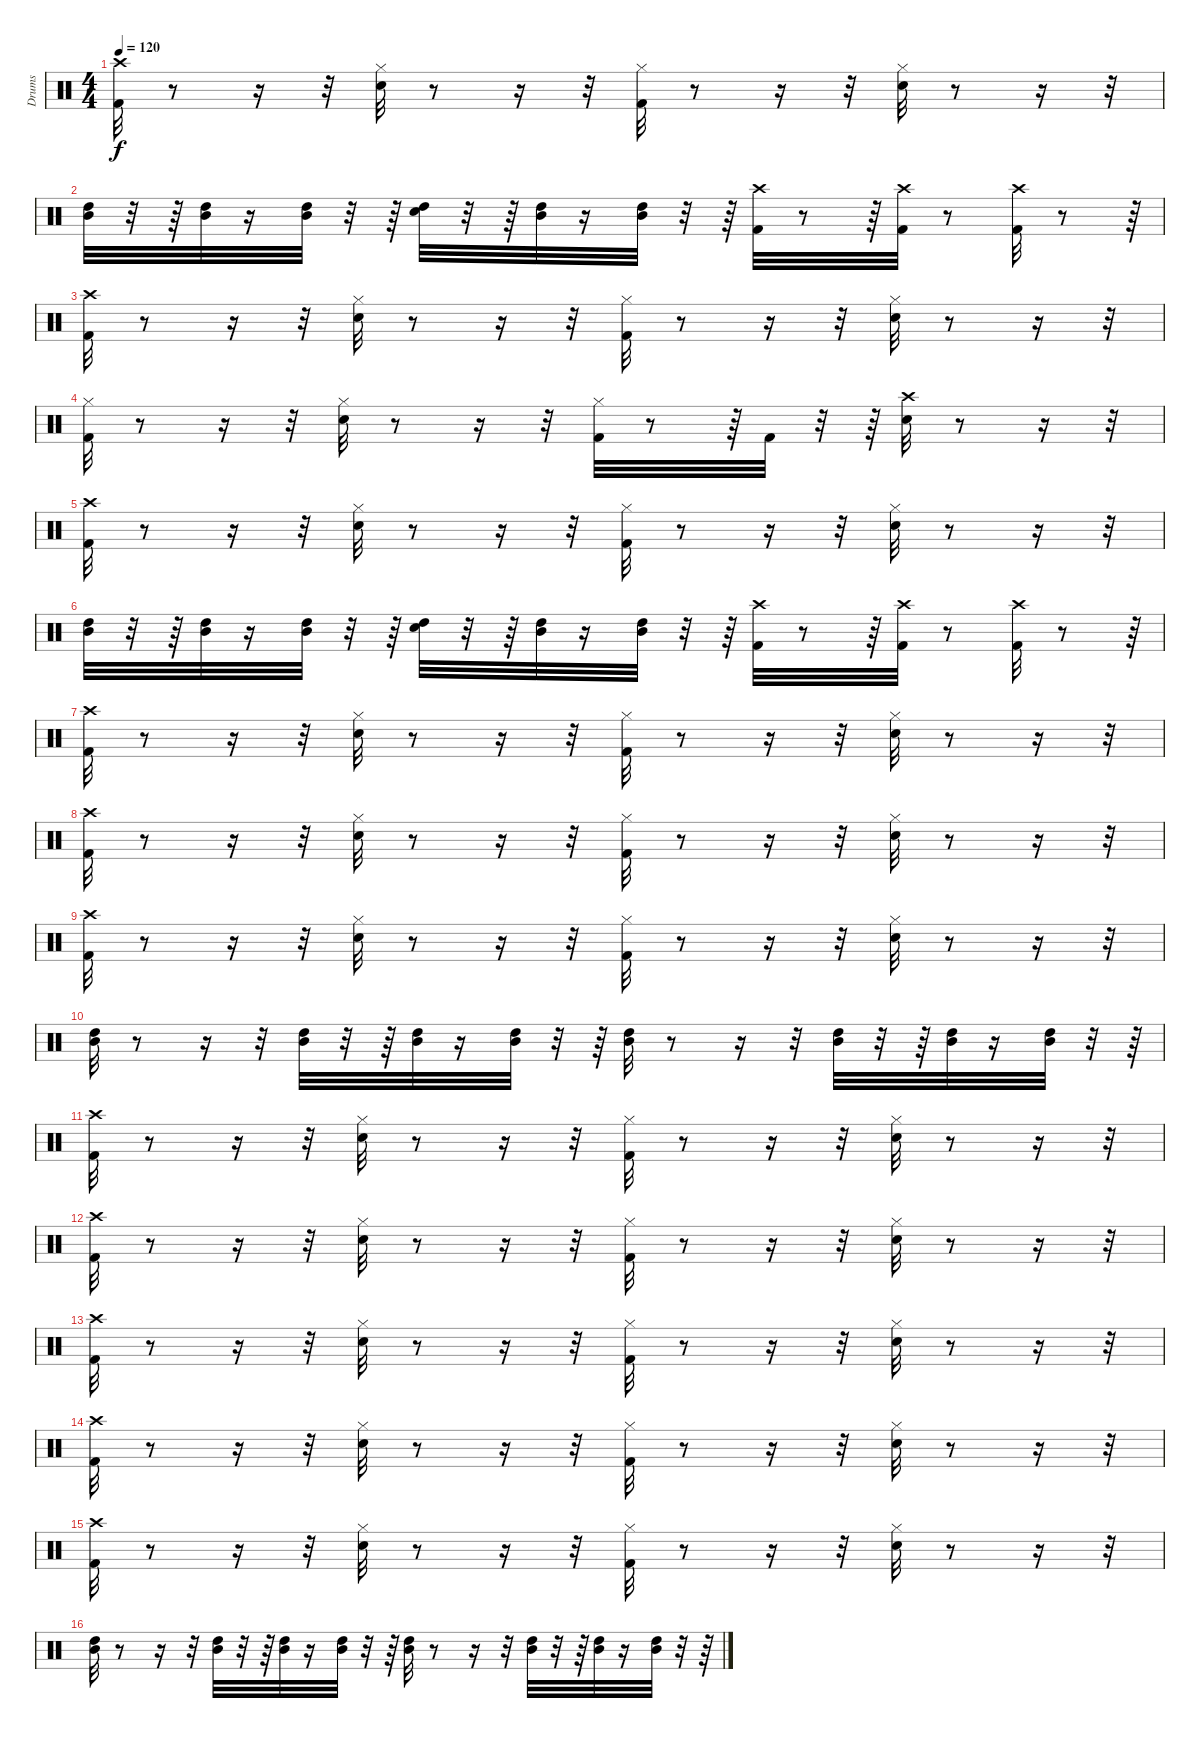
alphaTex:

\track ("Drums" "Drums") {instrument percussion}
\staff {score}
\articulation defaults
\ts (4 4)
\tempo 120
\clef neutral
\ks c
("Crash high (hit)" "Kick (hit) 2").32{dy f} r.8 r.16 r.32 ("Snare (hit) 2" "Hi-Hat (closed)").32 r.8 r.16 r.32 ("Hi-Hat (closed)" "Kick (hit) 2").32 r.8 r.16 r.32 ("Snare (hit) 2" "Hi-Hat (closed)").32 r.8 r.16 r.32 |
("High Tom (hit)" "Mid Tom (hit)").32 r.32 r.64 ("High Tom (hit)" "Mid Tom (hit)").32 r.16 ("High Tom (hit)" "Mid Tom (hit)").32 r.32 r.64 ("Snare (hit) 2" "High Tom (hit)").32 r.32 r.64 ("High Tom (hit)" "Mid Tom (hit)").32 r.16 ("High Tom (hit)" "Mid Tom (hit)").32 r.32 r.64 ("Kick (hit) 2" "Crash high (hit)").32 r.8 r.64 ("Kick (hit) 2" "Crash high (hit)").32 r.8 ("Kick (hit) 2" "Crash high (hit)").32 r.8 r.64 |
("Kick (hit) 2" "Crash high (hit)").32 r.8 r.16 r.32 ("Snare (hit) 2" "Hi-Hat (closed)").32 r.8 r.16 r.32 ("Kick (hit) 2" "Hi-Hat (closed)").32 r.8 r.16 r.32 ("Snare (hit) 2" "Hi-Hat (closed)").32 r.8 r.16 r.32 |
("Kick (hit) 2" "Hi-Hat (closed)").32 r.8 r.16 r.32 ("Snare (hit) 2" "Hi-Hat (closed)").32 r.8 r.16 r.32 ("Kick (hit) 2" "Hi-Hat (closed)").32 r.8 r.64 "Kick (hit) 2".32 r.32 r.64 ("Snare (hit) 2" "Crash high (hit)").32 r.8 r.16 r.32 |
("Crash high (hit)" "Kick (hit) 2").32 r.8 r.16 r.32 ("Snare (hit) 2" "Hi-Hat (closed)").32 r.8 r.16 r.32 ("Hi-Hat (closed)" "Kick (hit) 2").32 r.8 r.16 r.32 ("Snare (hit) 2" "Hi-Hat (closed)").32 r.8 r.16 r.32 |
("High Tom (hit)" "Mid Tom (hit)").32 r.32 r.64 ("High Tom (hit)" "Mid Tom (hit)").32 r.16 ("High Tom (hit)" "Mid Tom (hit)").32 r.32 r.64 ("Snare (hit) 2" "High Tom (hit)").32 r.32 r.64 ("High Tom (hit)" "Mid Tom (hit)").32 r.16 ("High Tom (hit)" "Mid Tom (hit)").32 r.32 r.64 ("Kick (hit) 2" "Crash high (hit)").32 r.8 r.64 ("Kick (hit) 2" "Crash high (hit)").32 r.8 ("Kick (hit) 2" "Crash high (hit)").32 r.8 r.64 |
("Kick (hit) 2" "Crash high (hit)").32 r.8 r.16 r.32 ("Snare (hit) 2" "Hi-Hat (closed)").32 r.8 r.16 r.32 ("Kick (hit) 2" "Hi-Hat (closed)").32 r.8 r.16 r.32 ("Snare (hit) 2" "Hi-Hat (closed)").32 r.8 r.16 r.32 |
("Kick (hit) 2" "Crash high (hit)").32 r.8 r.16 r.32 ("Snare (hit) 2" "Hi-Hat (closed)").32 r.8 r.16 r.32 ("Kick (hit) 2" "Hi-Hat (closed)").32 r.8 r.16 r.32 ("Snare (hit) 2" "Hi-Hat (closed)").32 r.8 r.16 r.32 |
("Kick (hit) 2" "Crash high (hit)").32 r.8 r.16 r.32 ("Snare (hit) 2" "Hi-Hat (closed)").32 r.8 r.16 r.32 ("Kick (hit) 2" "Hi-Hat (closed)").32 r.8 r.16 r.32 ("Snare (hit) 2" "Hi-Hat (closed)").32 r.8 r.16 r.32 |
("Mid Tom (hit)" "High Tom (hit)").32 r.8 r.16 r.32 ("Mid Tom (hit)" "High Tom (hit)").32 r.32 r.64 ("High Tom (hit)" "Mid Tom (hit)").32 r.16 ("Mid Tom (hit)" "High Tom (hit)").32 r.32 r.64 ("Mid Tom (hit)" "High Tom (hit)").32 r.8 r.16 r.32 ("Mid Tom (hit)" "High Tom (hit)").32 r.32 r.64 ("High Tom (hit)" "Mid Tom (hit)").32 r.16 ("Mid Tom (hit)" "High Tom (hit)").32 r.32 r.64 |
("Crash high (hit)" "Kick (hit) 2").32 r.8 r.16 r.32 ("Hi-Hat (closed)" "Snare (hit) 2").32 r.8 r.16 r.32 ("Hi-Hat (closed)" "Kick (hit) 2").32 r.8 r.16 r.32 ("Hi-Hat (closed)" "Snare (hit) 2").32 r.8 r.16 r.32 |
("Kick (hit) 2" "Crash high (hit)").32 r.8 r.16 r.32 ("Snare (hit) 2" "Hi-Hat (closed)").32 r.8 r.16 r.32 ("Kick (hit) 2" "Hi-Hat (closed)").32 r.8 r.16 r.32 ("Snare (hit) 2" "Hi-Hat (closed)").32 r.8 r.16 r.32 |
("Kick (hit) 2" "Crash high (hit)").32 r.8 r.16 r.32 ("Snare (hit) 2" "Hi-Hat (closed)").32 r.8 r.16 r.32 ("Kick (hit) 2" "Hi-Hat (closed)").32 r.8 r.16 r.32 ("Snare (hit) 2" "Hi-Hat (closed)").32 r.8 r.16 r.32 |
("Kick (hit) 2" "Crash high (hit)").32 r.8 r.16 r.32 ("Snare (hit) 2" "Hi-Hat (closed)").32 r.8 r.16 r.32 ("Kick (hit) 2" "Hi-Hat (closed)").32 r.8 r.16 r.32 ("Snare (hit) 2" "Hi-Hat (closed)").32 r.8 r.16 r.32 |
("Kick (hit) 2" "Crash high (hit)").32 r.8 r.16 r.32 ("Snare (hit) 2" "Hi-Hat (closed)").32 r.8 r.16 r.32 ("Kick (hit) 2" "Hi-Hat (closed)").32 r.8 r.16 r.32 ("Snare (hit) 2" "Hi-Hat (closed)").32 r.8 r.16 r.32 |
("Mid Tom (hit)" "High Tom (hit)").32 r.8 r.16 r.32 ("Mid Tom (hit)" "High Tom (hit)").32 r.32 r.64 ("High Tom (hit)" "Mid Tom (hit)").32 r.16 ("Mid Tom (hit)" "High Tom (hit)").32 r.32 r.64 ("Mid Tom (hit)" "High Tom (hit)").32 r.8 r.16 r.32 ("Mid Tom (hit)" "High Tom (hit)").32 r.32 r.64 ("High Tom (hit)" "Mid Tom (hit)").32 r.16 ("Mid Tom (hit)" "High Tom (hit)").32 r.32 r.64
